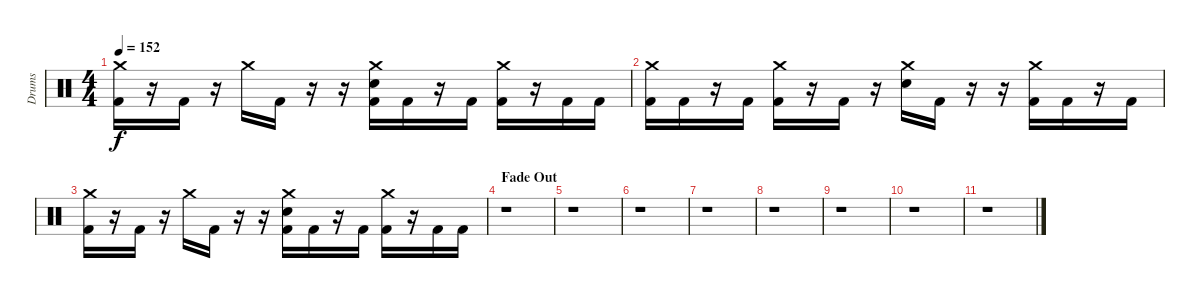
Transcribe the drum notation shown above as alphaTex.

\track ("Drums" "Drums") {instrument percussion}
\staff {score}
\articulation defaults
\ts (4 4)
\tempo 152
\clef neutral
\ks c
("Crash medium (hit)" "Kick (hit) 2").16{dy f} r.16 "Kick (hit) 2".16 r.16 "Crash medium (hit)".16 "Kick (hit) 2".16 r.16 r.16 ("Crash medium (hit)" "Electric Snare (hit)" "Kick (hit) 2").16 "Kick (hit) 2".16 r.16 "Kick (hit) 2".16 ("Crash medium (hit)" "Kick (hit) 2").16 r.16 "Kick (hit) 2".16 "Kick (hit) 2".16 |
("Crash medium (hit)" "Kick (hit) 2").16 "Kick (hit) 2".16 r.16 "Kick (hit) 2".16 ("Crash medium (hit)" "Kick (hit) 2").16 r.16 "Kick (hit) 2".16 r.16 ("Crash medium (hit)" "Electric Snare (hit)").16 "Kick (hit) 2".16 r.16 r.16 ("Crash medium (hit)" "Kick (hit) 2").16 "Kick (hit) 2".16 r.16 "Kick (hit) 2".16 |
("Crash medium (hit)" "Kick (hit) 2").16 r.16 "Kick (hit) 2".16 r.16 "Crash medium (hit)".16 "Kick (hit) 2".16 r.16 r.16 ("Crash medium (hit)" "Electric Snare (hit)" "Kick (hit) 2").16 "Kick (hit) 2".16 r.16 "Kick (hit) 2".16 ("Crash medium (hit)" "Kick (hit) 2").16 r.16 "Kick (hit) 2".16 "Kick (hit) 2".16 |
\section ("" "Fade Out")
r.1 |
r.1 |
r.1 |
r.1 |
r.1 |
r.1 |
r.1 |
r.1
